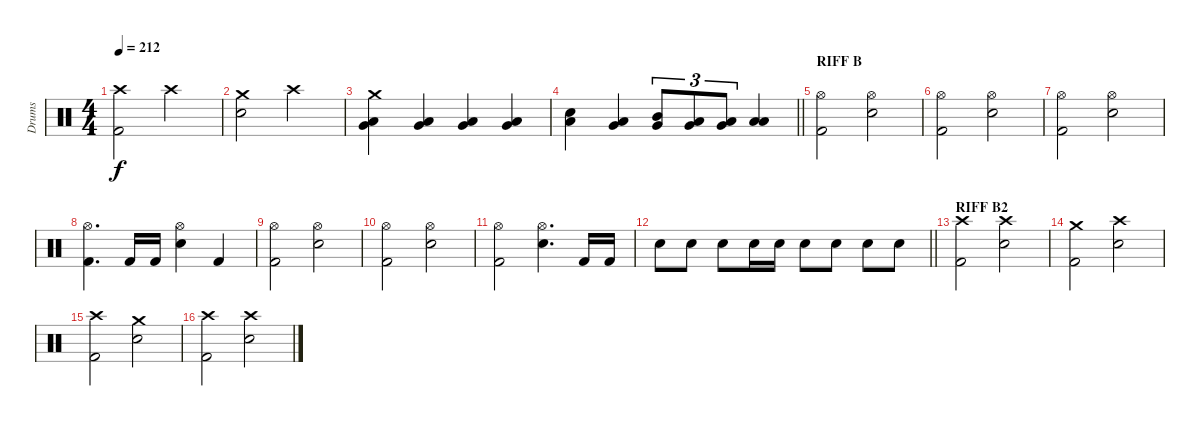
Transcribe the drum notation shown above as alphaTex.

\track ("Drums" "Drums") {instrument percussion}
\staff {score}
\articulation defaults
\ts (4 4)
\tempo 212
\clef neutral
\ks c
("Crash high (hit)" "Kick (hit) 2").2{dy f} "Crash high (hit)".2 |
("Crash medium (hit)" "Snare (hit) 2").2 "Crash high (hit)".2 |
("Crash medium (hit)" "Low Tom (hit)" "Very Low Tom (hit)").4 ("Low Tom (hit)" "Very Low Tom (hit)").4 ("Low Tom (hit)" "Very Low Tom (hit)").4 ("Low Tom (hit)" "Very Low Tom (hit)").4 |
\barLineRight lightlight
("Snare (hit) 2" "Low Tom (hit)").4 ("Low Tom (hit)" "Very Low Tom (hit)").4 ("Mid Tom (hit)" "Very Low Tom (hit)").8{tu (3 2)} ("Low Tom (hit)" "Very Low Tom (hit)").8{tu (3 2)} ("Very Low Tom (hit)" "Low Floor Tom (hit)").8{tu (3 2)} ("Low Floor Tom (hit)" "Low Floor Tom (hit)").4 |
\section ("" "RIFF B")
("Hi-Hat (open)" "Kick (hit) 2").2 ("Hi-Hat (open)" "Snare (hit) 2").2 |
("Hi-Hat (open)" "Kick (hit) 2").2 ("Hi-Hat (open)" "Snare (hit) 2").2 |
("Hi-Hat (open)" "Kick (hit) 2").2 ("Hi-Hat (open)" "Snare (hit) 2").2 |
("Hi-Hat (open)" "Kick (hit) 2").4{d} "Kick (hit) 2".16 "Kick (hit) 2".16 ("Hi-Hat (open)" "Snare (hit) 2").4 "Kick (hit) 2".4 |
("Hi-Hat (open)" "Kick (hit) 2").2 ("Hi-Hat (open)" "Snare (hit) 2").2 |
("Hi-Hat (open)" "Kick (hit) 2").2 ("Hi-Hat (open)" "Snare (hit) 2").2 |
("Hi-Hat (open)" "Kick (hit) 2").2 ("Hi-Hat (open)" "Snare (hit) 2").4{d} "Kick (hit) 2".16 "Kick (hit) 2".16 |
\barLineRight lightlight "Snare (hit) 2".8 "Snare (hit) 2".8 "Snare (hit) 2".8 "Snare (hit) 2".16 "Snare (hit) 2".16 "Snare (hit) 2".8 "Snare (hit) 2".8 "Snare (hit) 2".8 "Snare (hit) 2".8
|
\section ("" "RIFF B2")
("Crash high (hit)" "Kick (hit) 2").2 ("Crash high (hit)" "Snare (hit) 2").2 |
("Crash medium (hit)" "Kick (hit) 2").2 ("Crash high (hit)" "Snare (hit) 2").2 |
("Crash high (hit)" "Kick (hit) 2").2 ("Crash medium (hit)" "Snare (hit) 2").2 |
("Crash high (hit)" "Kick (hit) 2").2 ("Crash high (hit)" "Snare (hit) 2").2
